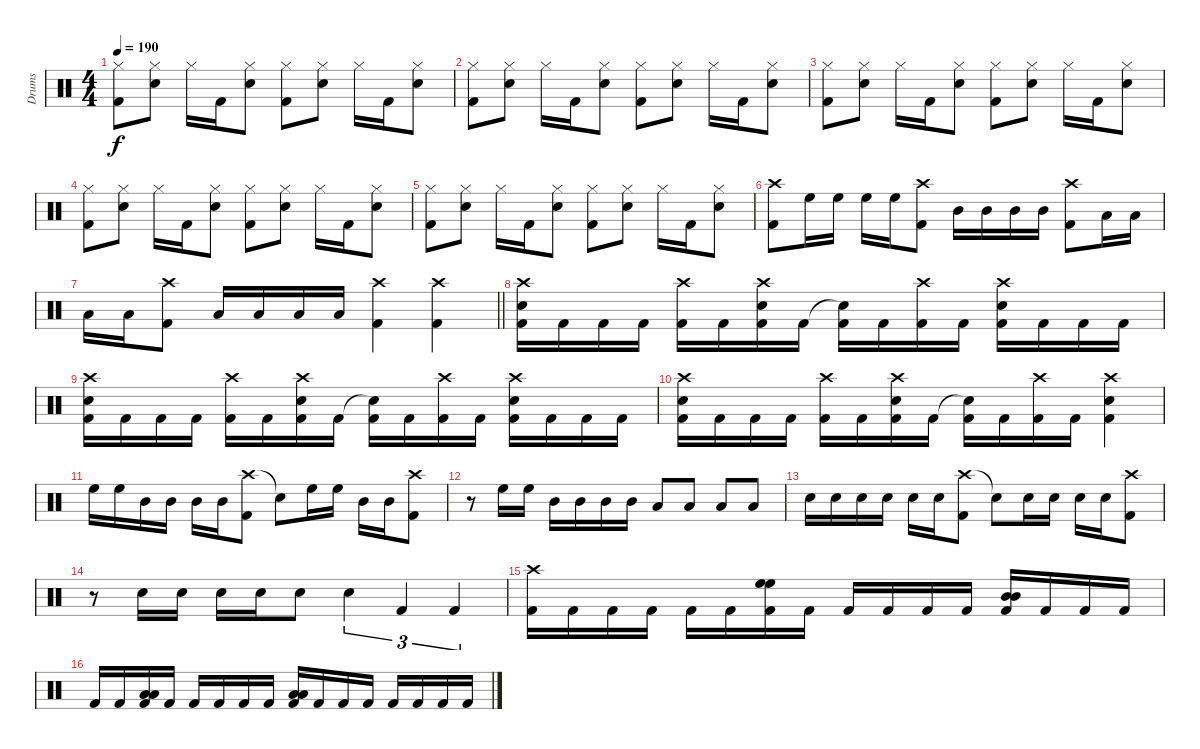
\track ("Drums" "Drums") {instrument percussion}
\staff {score}
\articulation defaults
\ts (4 4)
\tempo 190
\clef neutral
\ks c
("Hi-Hat (closed)" "Kick (hit) 2").8{dy f} ("Hi-Hat (closed)" "Snare (hit) 2").8 "Hi-Hat (closed)".16 "Kick (hit) 2".16 ("Hi-Hat (closed)" "Snare (hit) 2").8 ("Hi-Hat (closed)" "Kick (hit) 2").8 ("Hi-Hat (closed)" "Snare (hit) 2").8 "Hi-Hat (closed)".16 "Kick (hit) 2".16 ("Hi-Hat (closed)" "Snare (hit) 2").8 |
("Hi-Hat (closed)" "Kick (hit) 2").8 ("Hi-Hat (closed)" "Snare (hit) 2").8 "Hi-Hat (closed)".16 "Kick (hit) 2".16 ("Hi-Hat (closed)" "Snare (hit) 2").8 ("Hi-Hat (closed)" "Kick (hit) 2").8 ("Hi-Hat (closed)" "Snare (hit) 2").8 "Hi-Hat (closed)".16 "Kick (hit) 2".16 ("Hi-Hat (closed)" "Snare (hit) 2").8 |
("Hi-Hat (closed)" "Kick (hit) 2").8 ("Hi-Hat (closed)" "Snare (hit) 2").8 "Hi-Hat (closed)".16 "Kick (hit) 2".16 ("Hi-Hat (closed)" "Snare (hit) 2").8 ("Hi-Hat (closed)" "Kick (hit) 2").8 ("Hi-Hat (closed)" "Snare (hit) 2").8 "Hi-Hat (closed)".16 "Kick (hit) 2".16 ("Hi-Hat (closed)" "Snare (hit) 2").8 |
("Hi-Hat (closed)" "Kick (hit) 2").8 ("Hi-Hat (closed)" "Snare (hit) 2").8 "Hi-Hat (closed)".16 "Kick (hit) 2".16 ("Hi-Hat (closed)" "Snare (hit) 2").8 ("Hi-Hat (closed)" "Kick (hit) 2").8 ("Hi-Hat (closed)" "Snare (hit) 2").8 "Hi-Hat (closed)".16 "Kick (hit) 2".16 ("Hi-Hat (closed)" "Snare (hit) 2").8 |
("Hi-Hat (closed)" "Kick (hit) 2").8 ("Hi-Hat (closed)" "Snare (hit) 2").8 "Hi-Hat (closed)".16 "Kick (hit) 2".16 ("Hi-Hat (closed)" "Snare (hit) 2").8 ("Hi-Hat (closed)" "Kick (hit) 2").8 ("Hi-Hat (closed)" "Snare (hit) 2").8 "Hi-Hat (closed)".16 "Kick (hit) 2".16 ("Hi-Hat (closed)" "Snare (hit) 2").8 |
("Crash high (hit)" "Kick (hit) 2").8 "High Floor Tom (hit)".16 "High Floor Tom (hit)".16 "High Floor Tom (hit)".16 "High Floor Tom (hit)".16 ("Crash high (hit)" "Kick (hit) 2").8 "Mid Tom (hit)".16 "Mid Tom (hit)".16 "Mid Tom (hit)".16 "Mid Tom (hit)".16 ("Crash high (hit)" "Kick (hit) 2").8 "Low Tom (hit)".16 "Low Tom (hit)".16 |
\barLineRight lightlight "Low Tom (hit)".16 "Low Tom (hit)".16
("Crash high (hit)" "Kick (hit) 2").8 "Low Floor Tom (hit)".16 "Low Floor Tom (hit)".16 "Low Floor Tom (hit)".16 "Low Floor Tom (hit)".16 ("Crash high (hit)" "Kick (hit) 2").4 ("Crash high (hit)" "Kick (hit) 2").4 |
("Crash high (hit)" "Snare (hit) 2" "Kick (hit) 2").16 "Kick (hit) 2".16 "Kick (hit) 2".16 "Kick (hit) 2".16 ("Crash high (hit)" "Kick (hit) 2").16 "Kick (hit) 2".16 ("Crash high (hit)" "Snare (hit) 2" "Kick (hit) 2").16 "Kick (hit) 2".16 ("Snare (hit)"{t} "Kick (hit) 2").16 "Kick (hit) 2".16 ("Crash high (hit)" "Kick (hit) 2").16 "Kick (hit) 2".16 ("Crash high (hit)" "Snare (hit) 2" "Kick (hit) 2").16 "Kick (hit) 2".16 "Kick (hit) 2".16 "Kick (hit) 2".16 |
("Crash high (hit)" "Snare (hit) 2" "Kick (hit) 2").16 "Kick (hit) 2".16 "Kick (hit) 2".16 "Kick (hit) 2".16 ("Crash high (hit)" "Kick (hit) 2").16 "Kick (hit) 2".16 ("Crash high (hit)" "Snare (hit) 2" "Kick (hit) 2").16 "Kick (hit) 2".16 ("Snare (hit)"{t} "Kick (hit) 2").16 "Kick (hit) 2".16 ("Crash high (hit)" "Kick (hit) 2").16 "Kick (hit) 2".16 ("Crash high (hit)" "Snare (hit) 2" "Kick (hit) 2").16 "Kick (hit) 2".16 "Kick (hit) 2".16 "Kick (hit) 2".16 |
("Crash high (hit)" "Snare (hit) 2" "Kick (hit) 2").16 "Kick (hit) 2".16 "Kick (hit) 2".16 "Kick (hit) 2".16 ("Crash high (hit)" "Kick (hit) 2").16 "Kick (hit) 2".16 ("Crash high (hit)" "Snare (hit) 2" "Kick (hit) 2").16 "Kick (hit) 2".16 ("Snare (hit)"{t} "Kick (hit) 2").16 "Kick (hit) 2".16 ("Crash high (hit)" "Kick (hit) 2").16 "Kick (hit) 2".16 ("Crash high (hit)" "Snare (hit) 2" "Kick (hit) 2").4 |
"High Floor Tom (hit)".16 "High Floor Tom (hit)".16 "Mid Tom (hit)".16 "Mid Tom (hit)".16 "Mid Tom (hit)".16 "Mid Tom (hit)".16 ("Crash high (hit)" "Kick (hit) 2").8 "Snare (hit)"{t}.8 "High Floor Tom (hit)".16 "High Floor Tom (hit)".16 "Mid Tom (hit)".16 "Mid Tom (hit)".16 ("Crash high (hit)" "Kick (hit) 2").8 |
r.8 "High Floor Tom (hit)".16 "High Floor Tom (hit)".16 "Mid Tom (hit)".16 "Mid Tom (hit)".16 "Mid Tom (hit)".16 "Mid Tom (hit)".16 "Low Tom (hit)".8 "Low Tom (hit)".8 "Low Tom (hit)".8 "Low Tom (hit)".8 |
"Snare (hit) 2".16 "Snare (hit) 2".16 "Snare (hit) 2".16 "Snare (hit) 2".16 "Snare (hit) 2".16 "Snare (hit) 2".16 ("Crash high (hit)" "Kick (hit) 2").8 "Snare (hit)"{t}.8 "Snare (hit) 2".16 "Snare (hit) 2".16 "Snare (hit) 2".16 "Snare (hit) 2".16 ("Crash high (hit)" "Kick (hit) 2").8 |
r.8 "Snare (hit) 2".16 "Snare (hit) 2".16 "Snare (hit) 2".16 "Snare (hit) 2".16 "Snare (hit) 2".8 "Snare (hit) 2".4{tu (3 2)} "Kick (hit) 2".4{tu (3 2)} "Kick (hit) 2".4{tu (3 2)} |
("Crash high (hit)" "Kick (hit) 2").16 "Kick (hit) 2".16 "Kick (hit) 2".16 "Kick (hit) 2".16 "Kick (hit) 2".16 "Kick (hit) 2".16 ("High Floor Tom (hit)" "High Floor Tom (hit)" "Kick (hit) 2").16 "Kick (hit) 2".16 "Kick (hit) 2".16 "Kick (hit) 2".16 "Kick (hit) 2".16 "Kick (hit) 2".16 ("Mid Tom (hit)" "Mid Tom (hit)" "Kick (hit) 2").16 "Kick (hit) 2".16 "Kick (hit) 2".16 "Kick (hit) 2".16 |
"Kick (hit) 2".16 "Kick (hit) 2".16 ("Low Tom (hit)" "Low Tom (hit)" "Kick (hit) 2").16 "Kick (hit) 2".16 "Kick (hit) 2".16 "Kick (hit) 2".16 "Kick (hit) 2".16 "Kick (hit) 2".16 ("Low Floor Tom (hit)" "Low Floor Tom (hit)" "Kick (hit) 2").16 "Kick (hit) 2".16 "Kick (hit) 2".16 "Kick (hit) 2".16 "Kick (hit) 2".16 "Kick (hit) 2".16 "Kick (hit) 2".16 "Kick (hit) 2".16
